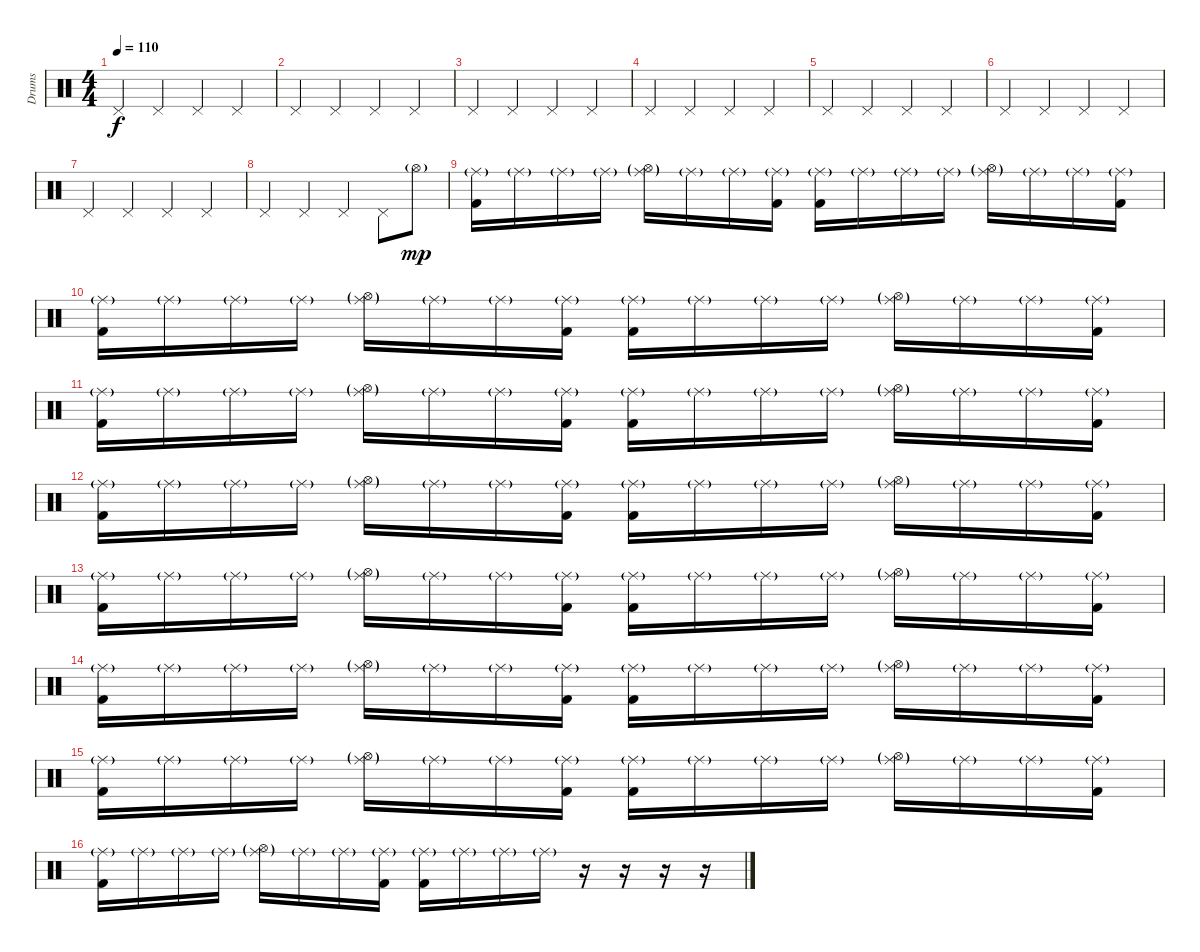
\track ("Drums" "Drums") {instrument percussion}
\staff {score}
\articulation defaults
\ts (4 4)
\tempo 110
\clef neutral
\ks c "Pedal Hi-Hat (hit)".4{dy f} "Pedal Hi-Hat (hit)".4 "Pedal Hi-Hat (hit)".4 "Pedal Hi-Hat (hit)".4
|
"Pedal Hi-Hat (hit)".4 "Pedal Hi-Hat (hit)".4 "Pedal Hi-Hat (hit)".4 "Pedal Hi-Hat (hit)".4 |
"Pedal Hi-Hat (hit)".4 "Pedal Hi-Hat (hit)".4 "Pedal Hi-Hat (hit)".4 "Pedal Hi-Hat (hit)".4 |
"Pedal Hi-Hat (hit)".4 "Pedal Hi-Hat (hit)".4 "Pedal Hi-Hat (hit)".4 "Pedal Hi-Hat (hit)".4 |
"Pedal Hi-Hat (hit)".4 "Pedal Hi-Hat (hit)".4 "Pedal Hi-Hat (hit)".4 "Pedal Hi-Hat (hit)".4 |
"Pedal Hi-Hat (hit)".4 "Pedal Hi-Hat (hit)".4 "Pedal Hi-Hat (hit)".4 "Pedal Hi-Hat (hit)".4 |
"Pedal Hi-Hat (hit)".4 "Pedal Hi-Hat (hit)".4 "Pedal Hi-Hat (hit)".4 "Pedal Hi-Hat (hit)".4 |
"Pedal Hi-Hat (hit)".4 "Pedal Hi-Hat (hit)".4 "Pedal Hi-Hat (hit)".4 "Pedal Hi-Hat (hit)".8 "Hi-Hat (open)"{g}.8{dy mp} |
("Ride (middle)"{g} "Kick (hit) 2").16 "Ride (middle)"{g}.16 "Ride (middle)"{g}.16 "Ride (middle)"{g}.16 ("Ride (middle)"{g} "Hi-Hat (open)"{g}).16 "Ride (middle)"{g}.16 "Ride (middle)"{g}.16 ("Ride (middle)"{g} "Kick (hit) 2").16 ("Ride (middle)"{g} "Kick (hit) 2").16 "Ride (middle)"{g}.16 "Ride (middle)"{g}.16 "Ride (middle)"{g}.16 ("Ride (middle)"{g} "Hi-Hat (open)"{g}).16 "Ride (middle)"{g}.16 "Ride (middle)"{g}.16 ("Ride (middle)"{g} "Kick (hit) 2").16 |
("Ride (middle)"{g} "Kick (hit) 2").16 "Ride (middle)"{g}.16 "Ride (middle)"{g}.16 "Ride (middle)"{g}.16 ("Ride (middle)"{g} "Hi-Hat (open)"{g}).16 "Ride (middle)"{g}.16 "Ride (middle)"{g}.16 ("Ride (middle)"{g} "Kick (hit) 2").16 ("Ride (middle)"{g} "Kick (hit) 2").16 "Ride (middle)"{g}.16 "Ride (middle)"{g}.16 "Ride (middle)"{g}.16 ("Ride (middle)"{g} "Hi-Hat (open)"{g}).16 "Ride (middle)"{g}.16 "Ride (middle)"{g}.16 ("Ride (middle)"{g} "Kick (hit) 2").16 |
("Ride (middle)"{g} "Kick (hit) 2").16 "Ride (middle)"{g}.16 "Ride (middle)"{g}.16 "Ride (middle)"{g}.16 ("Ride (middle)"{g} "Hi-Hat (open)"{g}).16 "Ride (middle)"{g}.16 "Ride (middle)"{g}.16 ("Ride (middle)"{g} "Kick (hit) 2").16 ("Ride (middle)"{g} "Kick (hit) 2").16 "Ride (middle)"{g}.16 "Ride (middle)"{g}.16 "Ride (middle)"{g}.16 ("Ride (middle)"{g} "Hi-Hat (open)"{g}).16 "Ride (middle)"{g}.16 "Ride (middle)"{g}.16 ("Ride (middle)"{g} "Kick (hit) 2").16 |
("Ride (middle)"{g} "Kick (hit) 2").16 "Ride (middle)"{g}.16 "Ride (middle)"{g}.16 "Ride (middle)"{g}.16 ("Ride (middle)"{g} "Hi-Hat (open)"{g}).16 "Ride (middle)"{g}.16 "Ride (middle)"{g}.16 ("Ride (middle)"{g} "Kick (hit) 2").16 ("Ride (middle)"{g} "Kick (hit) 2").16 "Ride (middle)"{g}.16 "Ride (middle)"{g}.16 "Ride (middle)"{g}.16 ("Ride (middle)"{g} "Hi-Hat (open)"{g}).16 "Ride (middle)"{g}.16 "Ride (middle)"{g}.16 ("Ride (middle)"{g} "Kick (hit) 2").16 |
("Ride (middle)"{g} "Kick (hit) 2").16 "Ride (middle)"{g}.16 "Ride (middle)"{g}.16 "Ride (middle)"{g}.16 ("Ride (middle)"{g} "Hi-Hat (open)"{g}).16 "Ride (middle)"{g}.16 "Ride (middle)"{g}.16 ("Ride (middle)"{g} "Kick (hit) 2").16 ("Ride (middle)"{g} "Kick (hit) 2").16 "Ride (middle)"{g}.16 "Ride (middle)"{g}.16 "Ride (middle)"{g}.16 ("Ride (middle)"{g} "Hi-Hat (open)"{g}).16 "Ride (middle)"{g}.16 "Ride (middle)"{g}.16 ("Ride (middle)"{g} "Kick (hit) 2").16 |
("Ride (middle)"{g} "Kick (hit) 2").16 "Ride (middle)"{g}.16 "Ride (middle)"{g}.16 "Ride (middle)"{g}.16 ("Ride (middle)"{g} "Hi-Hat (open)"{g}).16 "Ride (middle)"{g}.16 "Ride (middle)"{g}.16 ("Ride (middle)"{g} "Kick (hit) 2").16 ("Ride (middle)"{g} "Kick (hit) 2").16 "Ride (middle)"{g}.16 "Ride (middle)"{g}.16 "Ride (middle)"{g}.16 ("Ride (middle)"{g} "Hi-Hat (open)"{g}).16 "Ride (middle)"{g}.16 "Ride (middle)"{g}.16 ("Ride (middle)"{g} "Kick (hit) 2").16 |
("Ride (middle)"{g} "Kick (hit) 2").16 "Ride (middle)"{g}.16 "Ride (middle)"{g}.16 "Ride (middle)"{g}.16 ("Ride (middle)"{g} "Hi-Hat (open)"{g}).16 "Ride (middle)"{g}.16 "Ride (middle)"{g}.16 ("Ride (middle)"{g} "Kick (hit) 2").16 ("Ride (middle)"{g} "Kick (hit) 2").16 "Ride (middle)"{g}.16 "Ride (middle)"{g}.16 "Ride (middle)"{g}.16 ("Ride (middle)"{g} "Hi-Hat (open)"{g}).16 "Ride (middle)"{g}.16 "Ride (middle)"{g}.16 ("Ride (middle)"{g} "Kick (hit) 2").16 |
("Ride (middle)"{g} "Kick (hit) 2").16 "Ride (middle)"{g}.16 "Ride (middle)"{g}.16 "Ride (middle)"{g}.16 ("Ride (middle)"{g} "Hi-Hat (open)"{g}).16 "Ride (middle)"{g}.16 "Ride (middle)"{g}.16 ("Ride (middle)"{g} "Kick (hit) 2").16 ("Ride (middle)"{g} "Kick (hit) 2").16 "Ride (middle)"{g}.16 "Ride (middle)"{g}.16 "Ride (middle)"{g}.16 r.16 r.16 r.16 r.16
